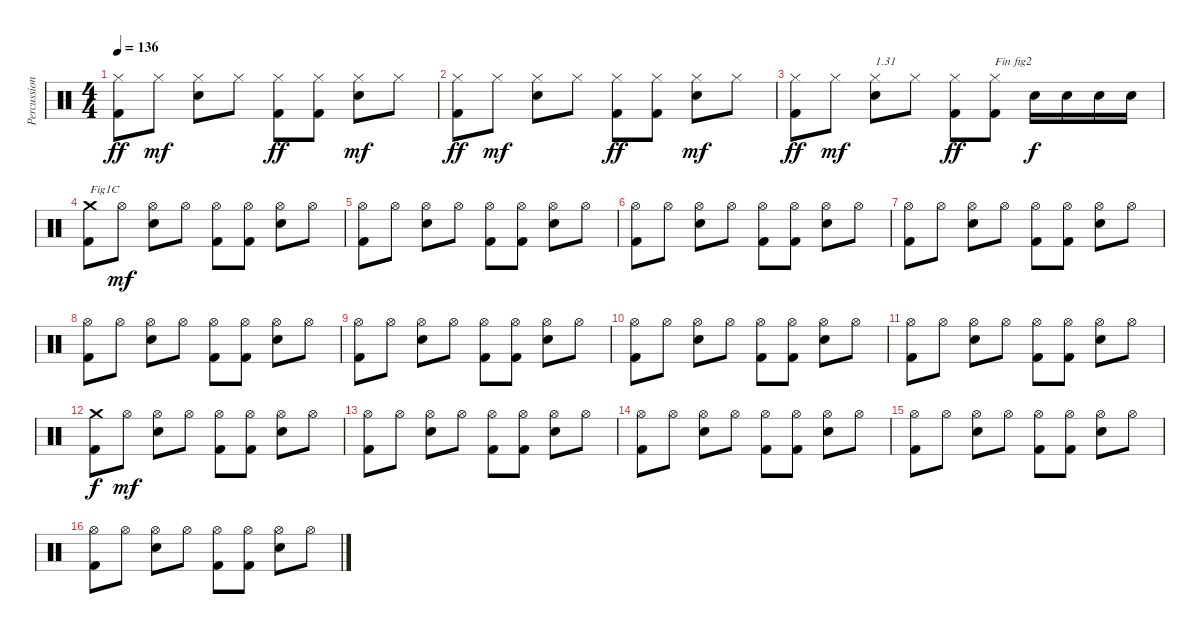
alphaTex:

\track ("Percussions" "Percussion") {instrument percussion}
\staff {score}
\articulation defaults
\ts (4 4)
\tempo 136
\clef neutral
\ks c
("Kick (hit) 2" "Hi-Hat (closed)").8{dy ff} "Hi-Hat (closed)".8{dy mf} ("Electric Snare (hit)" "Hi-Hat (closed)").8 "Hi-Hat (closed)".8 ("Kick (hit) 2" "Hi-Hat (closed)").8{dy ff} ("Kick (hit) 2" "Hi-Hat (closed)").8 ("Electric Snare (hit)" "Hi-Hat (closed)").8{dy mf} "Hi-Hat (closed)".8 |
("Kick (hit) 2" "Hi-Hat (closed)").8{dy ff} "Hi-Hat (closed)".8{dy mf} ("Electric Snare (hit)" "Hi-Hat (closed)").8 "Hi-Hat (closed)".8 ("Kick (hit) 2" "Hi-Hat (closed)").8{dy ff} ("Kick (hit) 2" "Hi-Hat (closed)").8 ("Electric Snare (hit)" "Hi-Hat (closed)").8{dy mf} "Hi-Hat (closed)".8 |
("Kick (hit) 2" "Hi-Hat (closed)").8{dy ff} "Hi-Hat (closed)".8{dy mf} ("Electric Snare (hit)" "Hi-Hat (closed)").8{txt "1.31"} "Hi-Hat (closed)".8 ("Kick (hit) 2" "Hi-Hat (closed)").8{dy ff} ("Kick (hit) 2" "Hi-Hat (closed)").8{txt "Fin fig2"} "Electric Snare (hit)".16{dy f} "Electric Snare (hit)".16 "Electric Snare (hit)".16 "Electric Snare (hit)".16 |
("Kick (hit) 2" "Crash medium (hit)").8{txt "Fig1C"} "Hi-Hat (open)".8{dy mf} ("Electric Snare (hit)" "Hi-Hat (open)").8 "Hi-Hat (open)".8 ("Kick (hit) 2" "Hi-Hat (open)").8 ("Kick (hit) 2" "Hi-Hat (open)").8 ("Electric Snare (hit)" "Hi-Hat (open)").8 "Hi-Hat (open)".8 |
("Kick (hit) 2" "Hi-Hat (open)").8 "Hi-Hat (open)".8 ("Electric Snare (hit)" "Hi-Hat (open)").8 "Hi-Hat (open)".8 ("Kick (hit) 2" "Hi-Hat (open)").8 ("Kick (hit) 2" "Hi-Hat (open)").8 ("Electric Snare (hit)" "Hi-Hat (open)").8 "Hi-Hat (open)".8 |
("Kick (hit) 2" "Hi-Hat (open)").8 "Hi-Hat (open)".8 ("Electric Snare (hit)" "Hi-Hat (open)").8 "Hi-Hat (open)".8 ("Kick (hit) 2" "Hi-Hat (open)").8 ("Kick (hit) 2" "Hi-Hat (open)").8 ("Electric Snare (hit)" "Hi-Hat (open)").8 "Hi-Hat (open)".8 |
("Kick (hit) 2" "Hi-Hat (open)").8 "Hi-Hat (open)".8 ("Electric Snare (hit)" "Hi-Hat (open)").8 "Hi-Hat (open)".8 ("Kick (hit) 2" "Hi-Hat (open)").8 ("Kick (hit) 2" "Hi-Hat (open)").8 ("Electric Snare (hit)" "Hi-Hat (open)").8 "Hi-Hat (open)".8 |
("Kick (hit) 2" "Hi-Hat (open)").8 "Hi-Hat (open)".8 ("Electric Snare (hit)" "Hi-Hat (open)").8 "Hi-Hat (open)".8 ("Kick (hit) 2" "Hi-Hat (open)").8 ("Kick (hit) 2" "Hi-Hat (open)").8 ("Electric Snare (hit)" "Hi-Hat (open)").8 "Hi-Hat (open)".8 |
("Kick (hit) 2" "Hi-Hat (open)").8 "Hi-Hat (open)".8 ("Electric Snare (hit)" "Hi-Hat (open)").8 "Hi-Hat (open)".8 ("Kick (hit) 2" "Hi-Hat (open)").8 ("Kick (hit) 2" "Hi-Hat (open)").8 ("Electric Snare (hit)" "Hi-Hat (open)").8 "Hi-Hat (open)".8 |
("Kick (hit) 2" "Hi-Hat (open)").8 "Hi-Hat (open)".8 ("Electric Snare (hit)" "Hi-Hat (open)").8 "Hi-Hat (open)".8 ("Kick (hit) 2" "Hi-Hat (open)").8 ("Kick (hit) 2" "Hi-Hat (open)").8 ("Electric Snare (hit)" "Hi-Hat (open)").8 "Hi-Hat (open)".8 |
("Kick (hit) 2" "Hi-Hat (open)").8 "Hi-Hat (open)".8 ("Electric Snare (hit)" "Hi-Hat (open)").8 "Hi-Hat (open)".8 ("Kick (hit) 2" "Hi-Hat (open)").8 ("Kick (hit) 2" "Hi-Hat (open)").8 ("Electric Snare (hit)" "Hi-Hat (open)").8 "Hi-Hat (open)".8 |
("Kick (hit) 2" "Crash medium (hit)").8{dy f} "Hi-Hat (open)".8{dy mf} ("Electric Snare (hit)" "Hi-Hat (open)").8 "Hi-Hat (open)".8 ("Kick (hit) 2" "Hi-Hat (open)").8 ("Kick (hit) 2" "Hi-Hat (open)").8 ("Electric Snare (hit)" "Hi-Hat (open)").8 "Hi-Hat (open)".8 |
("Kick (hit) 2" "Hi-Hat (open)").8 "Hi-Hat (open)".8 ("Electric Snare (hit)" "Hi-Hat (open)").8 "Hi-Hat (open)".8 ("Kick (hit) 2" "Hi-Hat (open)").8 ("Kick (hit) 2" "Hi-Hat (open)").8 ("Electric Snare (hit)" "Hi-Hat (open)").8 "Hi-Hat (open)".8 |
("Kick (hit) 2" "Hi-Hat (open)").8 "Hi-Hat (open)".8 ("Electric Snare (hit)" "Hi-Hat (open)").8 "Hi-Hat (open)".8 ("Kick (hit) 2" "Hi-Hat (open)").8 ("Kick (hit) 2" "Hi-Hat (open)").8 ("Electric Snare (hit)" "Hi-Hat (open)").8 "Hi-Hat (open)".8 |
("Kick (hit) 2" "Hi-Hat (open)").8 "Hi-Hat (open)".8 ("Electric Snare (hit)" "Hi-Hat (open)").8 "Hi-Hat (open)".8 ("Kick (hit) 2" "Hi-Hat (open)").8 ("Kick (hit) 2" "Hi-Hat (open)").8 ("Electric Snare (hit)" "Hi-Hat (open)").8 "Hi-Hat (open)".8 |
("Kick (hit) 2" "Hi-Hat (open)").8 "Hi-Hat (open)".8 ("Electric Snare (hit)" "Hi-Hat (open)").8 "Hi-Hat (open)".8 ("Kick (hit) 2" "Hi-Hat (open)").8 ("Kick (hit) 2" "Hi-Hat (open)").8 ("Electric Snare (hit)" "Hi-Hat (open)").8 "Hi-Hat (open)".8
